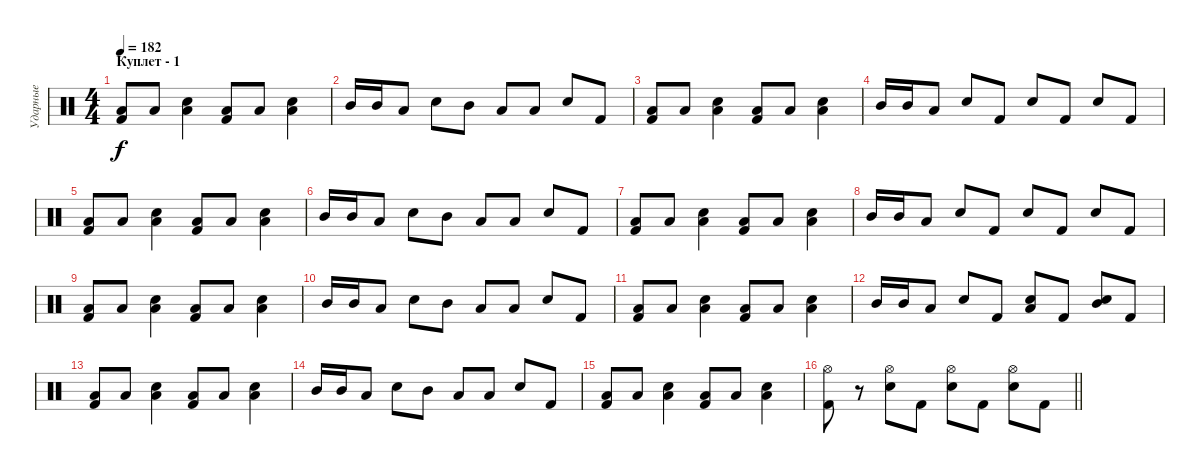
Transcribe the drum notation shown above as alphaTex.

\track ("Ударные" "Ударные") {instrument percussion}
\staff {score}
\articulation defaults
\ts (4 4)
\section ("" "Куплет - 1")
\tempo 182
\clef neutral
\ks c
("Low Floor Tom (hit)" "Kick (hit) 2").8{dy f} "Low Tom (hit)".8 ("Low Floor Tom (hit)" "Snare (hit) 2").4 ("Low Floor Tom (hit)" "Kick (hit) 2").8 "Low Tom (hit)".8 ("Low Floor Tom (hit)" "Snare (hit) 2").4 |
"Mid Tom (hit)".16 "Mid Tom (hit)".16 "Low Tom (hit)".8 "Snare (hit) 2".8 "Mid Tom (hit)".8 "Low Tom (hit)".8 "Low Tom (hit)".8 "Snare (hit) 2".8 "Kick (hit) 2".8 |
("Low Floor Tom (hit)" "Kick (hit) 2").8 "Low Tom (hit)".8 ("Low Floor Tom (hit)" "Snare (hit) 2").4 ("Low Floor Tom (hit)" "Kick (hit) 2").8 "Low Tom (hit)".8 ("Low Floor Tom (hit)" "Snare (hit) 2").4 |
"Mid Tom (hit)".16 "Mid Tom (hit)".16 "Low Tom (hit)".8 "Snare (hit) 2".8 "Kick (hit) 2".8 "Snare (hit) 2".8 "Kick (hit) 2".8 "Snare (hit) 2".8 "Kick (hit) 2".8 |
("Low Floor Tom (hit)" "Kick (hit) 2").8 "Low Tom (hit)".8 ("Low Floor Tom (hit)" "Snare (hit) 2").4 ("Low Floor Tom (hit)" "Kick (hit) 2").8 "Low Tom (hit)".8 ("Low Floor Tom (hit)" "Snare (hit) 2").4 |
"Mid Tom (hit)".16 "Mid Tom (hit)".16 "Low Tom (hit)".8 "Snare (hit) 2".8 "Mid Tom (hit)".8 "Low Tom (hit)".8 "Low Tom (hit)".8 "Snare (hit) 2".8 "Kick (hit) 2".8 |
("Low Floor Tom (hit)" "Kick (hit) 2").8 "Low Tom (hit)".8 ("Low Floor Tom (hit)" "Snare (hit) 2").4 ("Low Floor Tom (hit)" "Kick (hit) 2").8 "Low Tom (hit)".8 ("Low Floor Tom (hit)" "Snare (hit) 2").4 |
"Mid Tom (hit)".16 "Mid Tom (hit)".16 "Low Tom (hit)".8 "Snare (hit) 2".8 "Kick (hit) 2".8 "Snare (hit) 2".8 "Kick (hit) 2".8 "Snare (hit) 2".8 "Kick (hit) 2".8 |
("Low Floor Tom (hit)" "Kick (hit) 2").8 "Low Tom (hit)".8 ("Low Floor Tom (hit)" "Snare (hit) 2").4 ("Low Floor Tom (hit)" "Kick (hit) 2").8 "Low Tom (hit)".8 ("Low Floor Tom (hit)" "Snare (hit) 2").4 |
"Mid Tom (hit)".16 "Mid Tom (hit)".16 "Low Tom (hit)".8 "Snare (hit) 2".8 "Mid Tom (hit)".8 "Low Tom (hit)".8 "Low Tom (hit)".8 "Snare (hit) 2".8 "Kick (hit) 2".8 |
("Low Floor Tom (hit)" "Kick (hit) 2").8 "Low Tom (hit)".8 ("Low Floor Tom (hit)" "Snare (hit) 2").4 ("Low Floor Tom (hit)" "Kick (hit) 2").8 "Low Tom (hit)".8 ("Low Floor Tom (hit)" "Snare (hit) 2").4 |
"Mid Tom (hit)".16 "Mid Tom (hit)".16 "Low Tom (hit)".8 "Snare (hit) 2".8 "Kick (hit) 2".8 ("Low Tom (hit)" "Snare (hit) 2").8 "Kick (hit) 2".8 ("Mid Tom (hit)" "Snare (hit) 2").8 "Kick (hit) 2".8 |
("Low Floor Tom (hit)" "Kick (hit) 2").8 "Low Tom (hit)".8 ("Low Floor Tom (hit)" "Snare (hit) 2").4 ("Low Floor Tom (hit)" "Kick (hit) 2").8 "Low Tom (hit)".8 ("Low Floor Tom (hit)" "Snare (hit) 2").4 |
"Mid Tom (hit)".16 "Mid Tom (hit)".16 "Low Tom (hit)".8 "Snare (hit) 2".8 "Mid Tom (hit)".8 "Low Tom (hit)".8 "Low Tom (hit)".8 "Snare (hit) 2".8 "Kick (hit) 2".8 |
("Low Floor Tom (hit)" "Kick (hit) 2").8 "Low Tom (hit)".8 ("Low Floor Tom (hit)" "Snare (hit) 2").4 ("Low Floor Tom (hit)" "Kick (hit) 2").8 "Low Tom (hit)".8 ("Low Floor Tom (hit)" "Snare (hit) 2").4 |
\barLineRight lightlight
("Hi-Hat (open)" "Kick (hit) 2").8 r.8 ("Hi-Hat (open)" "Snare (hit) 2").8 "Kick (hit) 2".8 ("Hi-Hat (open)" "Snare (hit) 2").8 "Kick (hit) 2".8 ("Hi-Hat (open)" "Snare (hit) 2").8 "Kick (hit) 2".8
